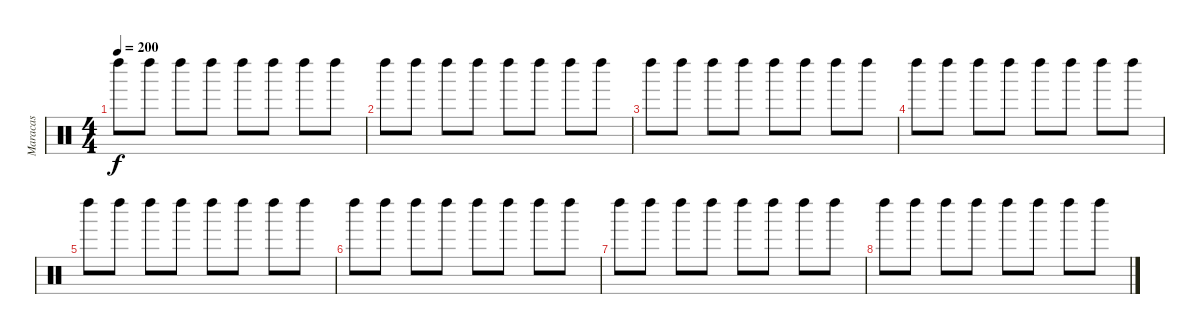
\track ("Maracas" "Maracas") {instrument percussion}
\staff {score}
\articulation defaults
\ts (4 4)
\tempo 200
\clef neutral
\ks c "Left Maraca (hit)".8{dy f} "Left Maraca (hit)".8 "Left Maraca (hit)".8 "Left Maraca (hit)".8 "Left Maraca (hit)".8 "Left Maraca (hit)".8 "Left Maraca (hit)".8 "Left Maraca (hit)".8
|
"Left Maraca (hit)".8 "Left Maraca (hit)".8 "Left Maraca (hit)".8 "Left Maraca (hit)".8 "Left Maraca (hit)".8 "Left Maraca (hit)".8 "Left Maraca (hit)".8 "Left Maraca (hit)".8 |
"Left Maraca (hit)".8 "Left Maraca (hit)".8 "Left Maraca (hit)".8 "Left Maraca (hit)".8 "Left Maraca (hit)".8 "Left Maraca (hit)".8 "Left Maraca (hit)".8 "Left Maraca (hit)".8 |
"Left Maraca (hit)".8 "Left Maraca (hit)".8 "Left Maraca (hit)".8 "Left Maraca (hit)".8 "Left Maraca (hit)".8 "Left Maraca (hit)".8 "Left Maraca (hit)".8 "Left Maraca (hit)".8 |
"Left Maraca (hit)".8 "Left Maraca (hit)".8 "Left Maraca (hit)".8 "Left Maraca (hit)".8 "Left Maraca (hit)".8 "Left Maraca (hit)".8 "Left Maraca (hit)".8 "Left Maraca (hit)".8 |
"Left Maraca (hit)".8 "Left Maraca (hit)".8 "Left Maraca (hit)".8 "Left Maraca (hit)".8 "Left Maraca (hit)".8 "Left Maraca (hit)".8 "Left Maraca (hit)".8 "Left Maraca (hit)".8 |
"Left Maraca (hit)".8 "Left Maraca (hit)".8 "Left Maraca (hit)".8 "Left Maraca (hit)".8 "Left Maraca (hit)".8 "Left Maraca (hit)".8 "Left Maraca (hit)".8 "Left Maraca (hit)".8 |
"Left Maraca (hit)".8 "Left Maraca (hit)".8 "Left Maraca (hit)".8 "Left Maraca (hit)".8 "Left Maraca (hit)".8 "Left Maraca (hit)".8 "Left Maraca (hit)".8 "Left Maraca (hit)".8
